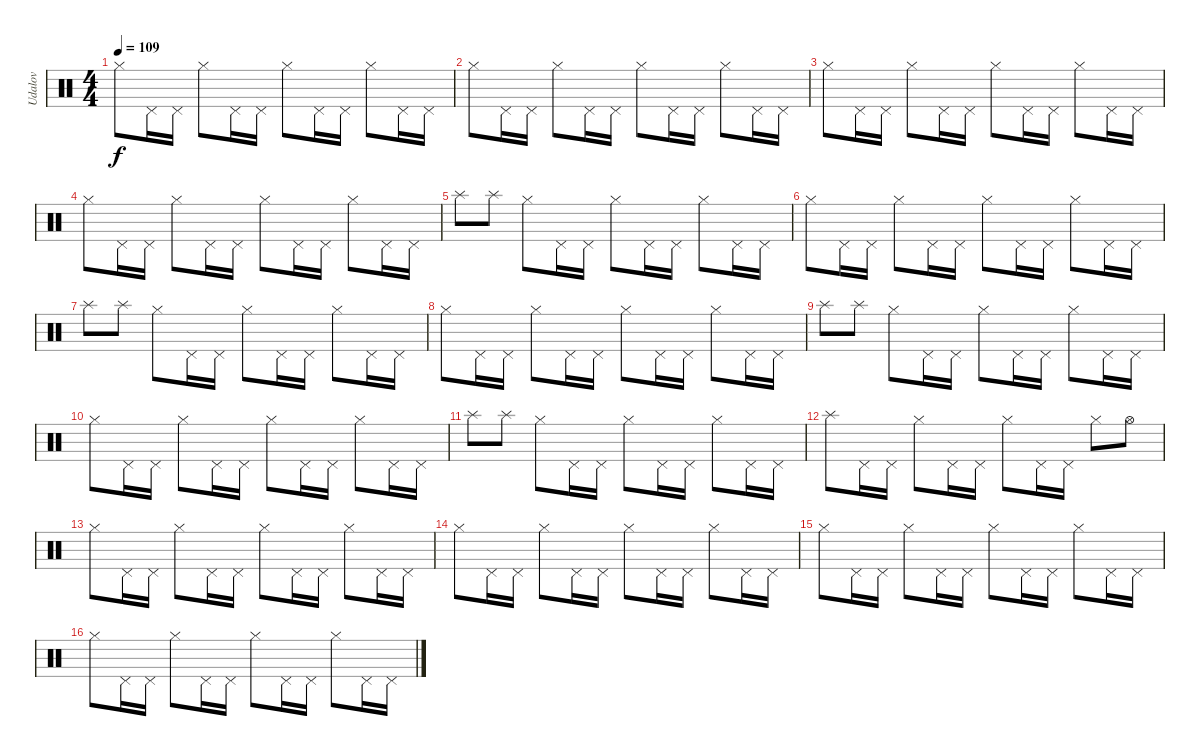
\track ("Udalov" "Udalov") {instrument percussion}
\staff {score}
\articulation defaults
\ts (4 4)
\tempo 109
\clef neutral
\ks c "Hi-Hat (closed)".8{dy f} "Pedal Hi-Hat (hit)".16 "Pedal Hi-Hat (hit)".16 "Hi-Hat (closed)".8 "Pedal Hi-Hat (hit)".16 "Pedal Hi-Hat (hit)".16 "Hi-Hat (closed)".8 "Pedal Hi-Hat (hit)".16 "Pedal Hi-Hat (hit)".16 "Hi-Hat (closed)".8 "Pedal Hi-Hat (hit)".16 "Pedal Hi-Hat (hit)".16
|
"Hi-Hat (closed)".8 "Pedal Hi-Hat (hit)".16 "Pedal Hi-Hat (hit)".16 "Hi-Hat (closed)".8 "Pedal Hi-Hat (hit)".16 "Pedal Hi-Hat (hit)".16 "Hi-Hat (closed)".8 "Pedal Hi-Hat (hit)".16 "Pedal Hi-Hat (hit)".16 "Hi-Hat (closed)".8 "Pedal Hi-Hat (hit)".16 "Pedal Hi-Hat (hit)".16 |
"Hi-Hat (closed)".8 "Pedal Hi-Hat (hit)".16 "Pedal Hi-Hat (hit)".16 "Hi-Hat (closed)".8 "Pedal Hi-Hat (hit)".16 "Pedal Hi-Hat (hit)".16 "Hi-Hat (closed)".8 "Pedal Hi-Hat (hit)".16 "Pedal Hi-Hat (hit)".16 "Hi-Hat (closed)".8 "Pedal Hi-Hat (hit)".16 "Pedal Hi-Hat (hit)".16 |
"Hi-Hat (closed)".8 "Pedal Hi-Hat (hit)".16 "Pedal Hi-Hat (hit)".16 "Hi-Hat (closed)".8 "Pedal Hi-Hat (hit)".16 "Pedal Hi-Hat (hit)".16 "Hi-Hat (closed)".8 "Pedal Hi-Hat (hit)".16 "Pedal Hi-Hat (hit)".16 "Hi-Hat (closed)".8 "Pedal Hi-Hat (hit)".16 "Pedal Hi-Hat (hit)".16 |
"Splash (hit)".8 "Splash (hit)".8 "Hi-Hat (closed)".8 "Pedal Hi-Hat (hit)".16 "Pedal Hi-Hat (hit)".16 "Hi-Hat (closed)".8 "Pedal Hi-Hat (hit)".16 "Pedal Hi-Hat (hit)".16 "Hi-Hat (closed)".8 "Pedal Hi-Hat (hit)".16 "Pedal Hi-Hat (hit)".16 |
"Hi-Hat (closed)".8 "Pedal Hi-Hat (hit)".16 "Pedal Hi-Hat (hit)".16 "Hi-Hat (closed)".8 "Pedal Hi-Hat (hit)".16 "Pedal Hi-Hat (hit)".16 "Hi-Hat (closed)".8 "Pedal Hi-Hat (hit)".16 "Pedal Hi-Hat (hit)".16 "Hi-Hat (closed)".8 "Pedal Hi-Hat (hit)".16 "Pedal Hi-Hat (hit)".16 |
"Splash (hit)".8 "Splash (hit)".8 "Hi-Hat (closed)".8 "Pedal Hi-Hat (hit)".16 "Pedal Hi-Hat (hit)".16 "Hi-Hat (closed)".8 "Pedal Hi-Hat (hit)".16 "Pedal Hi-Hat (hit)".16 "Hi-Hat (closed)".8 "Pedal Hi-Hat (hit)".16 "Pedal Hi-Hat (hit)".16 |
"Hi-Hat (closed)".8 "Pedal Hi-Hat (hit)".16 "Pedal Hi-Hat (hit)".16 "Hi-Hat (closed)".8 "Pedal Hi-Hat (hit)".16 "Pedal Hi-Hat (hit)".16 "Hi-Hat (closed)".8 "Pedal Hi-Hat (hit)".16 "Pedal Hi-Hat (hit)".16 "Hi-Hat (closed)".8 "Pedal Hi-Hat (hit)".16 "Pedal Hi-Hat (hit)".16 |
"Splash (hit)".8 "Splash (hit)".8 "Hi-Hat (closed)".8 "Pedal Hi-Hat (hit)".16 "Pedal Hi-Hat (hit)".16 "Hi-Hat (closed)".8 "Pedal Hi-Hat (hit)".16 "Pedal Hi-Hat (hit)".16 "Hi-Hat (closed)".8 "Pedal Hi-Hat (hit)".16 "Pedal Hi-Hat (hit)".16 |
"Hi-Hat (closed)".8 "Pedal Hi-Hat (hit)".16 "Pedal Hi-Hat (hit)".16 "Hi-Hat (closed)".8 "Pedal Hi-Hat (hit)".16 "Pedal Hi-Hat (hit)".16 "Hi-Hat (closed)".8 "Pedal Hi-Hat (hit)".16 "Pedal Hi-Hat (hit)".16 "Hi-Hat (closed)".8 "Pedal Hi-Hat (hit)".16 "Pedal Hi-Hat (hit)".16 |
"Splash (hit)".8 "Splash (hit)".8 "Hi-Hat (closed)".8 "Pedal Hi-Hat (hit)".16 "Pedal Hi-Hat (hit)".16 "Hi-Hat (closed)".8 "Pedal Hi-Hat (hit)".16 "Pedal Hi-Hat (hit)".16 "Hi-Hat (closed)".8 "Pedal Hi-Hat (hit)".16 "Pedal Hi-Hat (hit)".16 |
"Splash (hit)".8 "Pedal Hi-Hat (hit)".16 "Pedal Hi-Hat (hit)".16 "Hi-Hat (closed)".8 "Pedal Hi-Hat (hit)".16 "Pedal Hi-Hat (hit)".16 "Hi-Hat (closed)".8 "Pedal Hi-Hat (hit)".16 "Pedal Hi-Hat (hit)".16 "Hi-Hat (closed)".8 "Hi-Hat (open)".8 |
"Hi-Hat (closed)".8 "Pedal Hi-Hat (hit)".16 "Pedal Hi-Hat (hit)".16 "Hi-Hat (closed)".8 "Pedal Hi-Hat (hit)".16 "Pedal Hi-Hat (hit)".16 "Hi-Hat (closed)".8 "Pedal Hi-Hat (hit)".16 "Pedal Hi-Hat (hit)".16 "Hi-Hat (closed)".8 "Pedal Hi-Hat (hit)".16 "Pedal Hi-Hat (hit)".16 |
"Hi-Hat (closed)".8 "Pedal Hi-Hat (hit)".16 "Pedal Hi-Hat (hit)".16 "Hi-Hat (closed)".8 "Pedal Hi-Hat (hit)".16 "Pedal Hi-Hat (hit)".16 "Hi-Hat (closed)".8 "Pedal Hi-Hat (hit)".16 "Pedal Hi-Hat (hit)".16 "Hi-Hat (closed)".8 "Pedal Hi-Hat (hit)".16 "Pedal Hi-Hat (hit)".16 |
"Hi-Hat (closed)".8 "Pedal Hi-Hat (hit)".16 "Pedal Hi-Hat (hit)".16 "Hi-Hat (closed)".8 "Pedal Hi-Hat (hit)".16 "Pedal Hi-Hat (hit)".16 "Hi-Hat (closed)".8 "Pedal Hi-Hat (hit)".16 "Pedal Hi-Hat (hit)".16 "Hi-Hat (closed)".8 "Pedal Hi-Hat (hit)".16 "Pedal Hi-Hat (hit)".16 |
"Hi-Hat (closed)".8 "Pedal Hi-Hat (hit)".16 "Pedal Hi-Hat (hit)".16 "Hi-Hat (closed)".8 "Pedal Hi-Hat (hit)".16 "Pedal Hi-Hat (hit)".16 "Hi-Hat (closed)".8 "Pedal Hi-Hat (hit)".16 "Pedal Hi-Hat (hit)".16 "Hi-Hat (closed)".8 "Pedal Hi-Hat (hit)".16 "Pedal Hi-Hat (hit)".16
